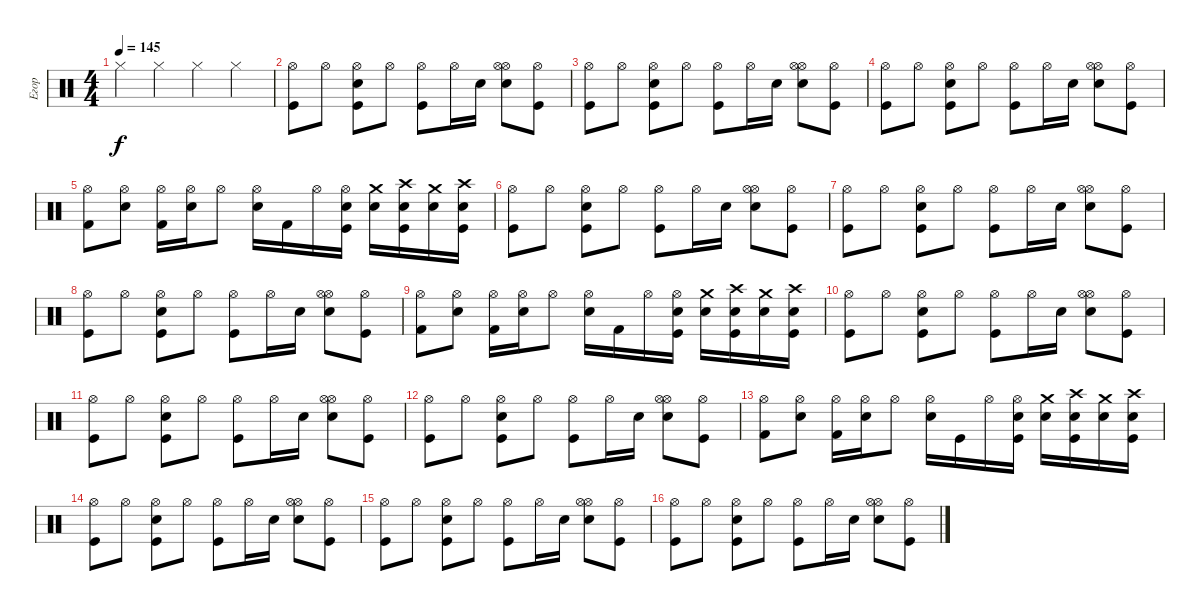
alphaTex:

\track ("Егор" "Егор") {instrument percussion}
\staff {score}
\articulation defaults
\ts (4 4)
\tempo 145
\clef neutral
\ks c "Hi-Hat (closed)".4{dy f} "Hi-Hat (closed)".4 "Hi-Hat (closed)".4 "Hi-Hat (closed)".4
|
("Hi-Hat (open)" "Kick (hit)").8 "Hi-Hat (open)".8 ("Hi-Hat (open)" "Electric Snare (hit)" "Kick (hit)").8 "Hi-Hat (open)".8 ("Hi-Hat (open)" "Kick (hit)").8 "Hi-Hat (open)".16 "Electric Snare (hit)".16 ("Hi-Hat (open)" "Electric Snare (hit)" "Hi-Hat (open)").8 ("Hi-Hat (open)" "Kick (hit)").8 |
("Hi-Hat (open)" "Kick (hit)").8 "Hi-Hat (open)".8 ("Hi-Hat (open)" "Electric Snare (hit)" "Kick (hit)").8 "Hi-Hat (open)".8 ("Hi-Hat (open)" "Kick (hit)").8 "Hi-Hat (open)".16 "Electric Snare (hit)".16 ("Hi-Hat (open)" "Electric Snare (hit)" "Hi-Hat (open)").8 ("Hi-Hat (open)" "Kick (hit)").8 |
("Hi-Hat (open)" "Kick (hit)").8 "Hi-Hat (open)".8 ("Hi-Hat (open)" "Electric Snare (hit)" "Kick (hit)").8 "Hi-Hat (open)".8 ("Hi-Hat (open)" "Kick (hit)").8 "Hi-Hat (open)".16 "Electric Snare (hit)".16 ("Hi-Hat (open)" "Electric Snare (hit)" "Hi-Hat (open)").8 ("Hi-Hat (open)" "Kick (hit)").8 |
("Hi-Hat (open)" "Kick (hit) 2").8 ("Hi-Hat (open)" "Electric Snare (hit)").8 ("Hi-Hat (open)" "Kick (hit) 2").16 ("Hi-Hat (open)" "Electric Snare (hit)").16 "Hi-Hat (open)".8 ("Hi-Hat (open)" "Electric Snare (hit)").16 "Kick (hit) 2".16 "Hi-Hat (open)".16 ("Hi-Hat (open)" "Electric Snare (hit)" "Kick (hit)").16 ("Crash medium (hit)" "Electric Snare (hit)").16 ("Crash high (hit)" "Electric Snare (hit)" "Kick (hit)").16 ("Crash medium (hit)" "Electric Snare (hit)").16 ("Crash high (hit)" "Electric Snare (hit)" "Kick (hit)").16 |
("Hi-Hat (open)" "Kick (hit)").8 "Hi-Hat (open)".8 ("Hi-Hat (open)" "Electric Snare (hit)" "Kick (hit)").8 "Hi-Hat (open)".8 ("Hi-Hat (open)" "Kick (hit)").8 "Hi-Hat (open)".16 "Electric Snare (hit)".16 ("Hi-Hat (open)" "Electric Snare (hit)" "Hi-Hat (open)").8 ("Hi-Hat (open)" "Kick (hit)").8 |
("Hi-Hat (open)" "Kick (hit)").8 "Hi-Hat (open)".8 ("Hi-Hat (open)" "Electric Snare (hit)" "Kick (hit)").8 "Hi-Hat (open)".8 ("Hi-Hat (open)" "Kick (hit)").8 "Hi-Hat (open)".16 "Electric Snare (hit)".16 ("Hi-Hat (open)" "Electric Snare (hit)" "Hi-Hat (open)").8 ("Hi-Hat (open)" "Kick (hit)").8 |
("Hi-Hat (open)" "Kick (hit)").8 "Hi-Hat (open)".8 ("Hi-Hat (open)" "Electric Snare (hit)" "Kick (hit)").8 "Hi-Hat (open)".8 ("Hi-Hat (open)" "Kick (hit)").8 "Hi-Hat (open)".16 "Electric Snare (hit)".16 ("Hi-Hat (open)" "Electric Snare (hit)" "Hi-Hat (open)").8 ("Hi-Hat (open)" "Kick (hit)").8 |
("Hi-Hat (open)" "Kick (hit) 2").8 ("Hi-Hat (open)" "Electric Snare (hit)").8 ("Hi-Hat (open)" "Kick (hit) 2").16 ("Hi-Hat (open)" "Electric Snare (hit)").16 "Hi-Hat (open)".8 ("Hi-Hat (open)" "Electric Snare (hit)").16 "Kick (hit) 2".16 "Hi-Hat (open)".16 ("Hi-Hat (open)" "Electric Snare (hit)" "Kick (hit)").16 ("Crash medium (hit)" "Electric Snare (hit)").16 ("Crash high (hit)" "Electric Snare (hit)" "Kick (hit)").16 ("Crash medium (hit)" "Electric Snare (hit)").16 ("Crash high (hit)" "Electric Snare (hit)" "Kick (hit)").16 |
("Hi-Hat (open)" "Kick (hit)").8 "Hi-Hat (open)".8 ("Hi-Hat (open)" "Electric Snare (hit)" "Kick (hit)").8 "Hi-Hat (open)".8 ("Hi-Hat (open)" "Kick (hit)").8 "Hi-Hat (open)".16 "Electric Snare (hit)".16 ("Hi-Hat (open)" "Electric Snare (hit)" "Hi-Hat (open)").8 ("Hi-Hat (open)" "Kick (hit)").8 |
("Hi-Hat (open)" "Kick (hit)").8 "Hi-Hat (open)".8 ("Hi-Hat (open)" "Electric Snare (hit)" "Kick (hit)").8 "Hi-Hat (open)".8 ("Hi-Hat (open)" "Kick (hit)").8 "Hi-Hat (open)".16 "Electric Snare (hit)".16 ("Hi-Hat (open)" "Electric Snare (hit)" "Hi-Hat (open)").8 ("Hi-Hat (open)" "Kick (hit)").8 |
("Hi-Hat (open)" "Kick (hit)").8 "Hi-Hat (open)".8 ("Hi-Hat (open)" "Electric Snare (hit)" "Kick (hit)").8 "Hi-Hat (open)".8 ("Hi-Hat (open)" "Kick (hit)").8 "Hi-Hat (open)".16 "Electric Snare (hit)".16 ("Hi-Hat (open)" "Electric Snare (hit)" "Hi-Hat (open)").8 ("Hi-Hat (open)" "Kick (hit)").8 |
("Hi-Hat (open)" "Kick (hit) 2").8 ("Hi-Hat (open)" "Electric Snare (hit)").8 ("Hi-Hat (open)" "Kick (hit) 2").16 ("Hi-Hat (open)" "Electric Snare (hit)").16 "Hi-Hat (open)".8 ("Hi-Hat (open)" "Electric Snare (hit)").16 "Kick (hit)".16 "Hi-Hat (open)".16 ("Hi-Hat (open)" "Electric Snare (hit)" "Kick (hit)").16 ("Crash medium (hit)" "Electric Snare (hit)").16 ("Crash high (hit)" "Electric Snare (hit)" "Kick (hit)").16 ("Crash medium (hit)" "Electric Snare (hit)").16 ("Crash high (hit)" "Electric Snare (hit)" "Kick (hit)").16 |
("Hi-Hat (open)" "Kick (hit)").8 "Hi-Hat (open)".8 ("Hi-Hat (open)" "Electric Snare (hit)" "Kick (hit)").8 "Hi-Hat (open)".8 ("Hi-Hat (open)" "Kick (hit)").8 "Hi-Hat (open)".16 "Electric Snare (hit)".16 ("Hi-Hat (open)" "Electric Snare (hit)" "Hi-Hat (open)").8 ("Hi-Hat (open)" "Kick (hit)").8 |
("Hi-Hat (open)" "Kick (hit)").8 "Hi-Hat (open)".8 ("Hi-Hat (open)" "Electric Snare (hit)" "Kick (hit)").8 "Hi-Hat (open)".8 ("Hi-Hat (open)" "Kick (hit)").8 "Hi-Hat (open)".16 "Electric Snare (hit)".16 ("Hi-Hat (open)" "Electric Snare (hit)" "Hi-Hat (open)").8 ("Hi-Hat (open)" "Kick (hit)").8 |
("Hi-Hat (open)" "Kick (hit)").8 "Hi-Hat (open)".8 ("Hi-Hat (open)" "Electric Snare (hit)" "Kick (hit)").8 "Hi-Hat (open)".8 ("Hi-Hat (open)" "Kick (hit)").8 "Hi-Hat (open)".16 "Electric Snare (hit)".16 ("Hi-Hat (open)" "Electric Snare (hit)" "Hi-Hat (open)").8 ("Hi-Hat (open)" "Kick (hit)").8
